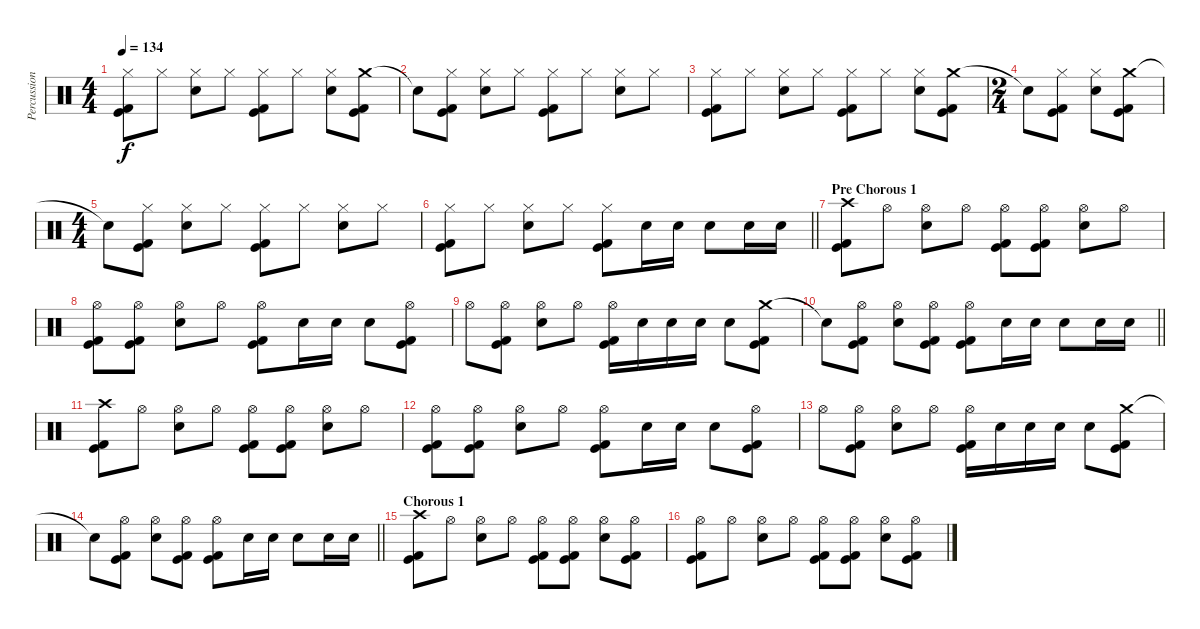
\track ("Percussion" "Percussion") {instrument percussion}
\staff {score}
\articulation defaults
\ts (4 4)
\tempo 134
\clef neutral
\ks c
("Hi-Hat (closed)" "Kick (hit)" "Kick (hit) 2").8{dy f} "Hi-Hat (closed)".8 ("Hi-Hat (closed)" "Electric Snare (hit)").8 "Hi-Hat (closed)".8 ("Hi-Hat (closed)" "Kick (hit)" "Kick (hit) 2").8 "Hi-Hat (closed)".8 ("Hi-Hat (closed)" "Electric Snare (hit)").8 ("Crash medium (hit)" "Kick (hit)" "Kick (hit) 2").8 |
"Snare (hit)"{t}.8 ("Hi-Hat (closed)" "Kick (hit)" "Kick (hit) 2").8 ("Hi-Hat (closed)" "Electric Snare (hit)").8 "Hi-Hat (closed)".8 ("Hi-Hat (closed)" "Kick (hit)" "Kick (hit) 2").8 "Hi-Hat (closed)".8 ("Hi-Hat (closed)" "Electric Snare (hit)").8 "Hi-Hat (closed)".8 |
("Hi-Hat (closed)" "Kick (hit)" "Kick (hit) 2").8 "Hi-Hat (closed)".8 ("Hi-Hat (closed)" "Electric Snare (hit)").8 "Hi-Hat (closed)".8 ("Hi-Hat (closed)" "Kick (hit)" "Kick (hit) 2").8 "Hi-Hat (closed)".8 ("Hi-Hat (closed)" "Electric Snare (hit)").8 ("Crash medium (hit)" "Kick (hit)" "Kick (hit) 2").8 |
\ts (2 4)
"Snare (hit)"{t}.8 ("Hi-Hat (closed)" "Kick (hit)" "Kick (hit) 2").8 ("Hi-Hat (closed)" "Electric Snare (hit)").8 ("Crash medium (hit)" "Kick (hit)" "Kick (hit) 2").8 |
\ts (4 4)
"Snare (hit)"{t}.8 ("Hi-Hat (closed)" "Kick (hit)" "Kick (hit) 2").8 ("Hi-Hat (closed)" "Electric Snare (hit)").8 "Hi-Hat (closed)".8 ("Hi-Hat (closed)" "Kick (hit)" "Kick (hit) 2").8 "Hi-Hat (closed)".8 ("Hi-Hat (closed)" "Electric Snare (hit)").8 "Hi-Hat (closed)".8 |
\barLineRight lightlight
("Hi-Hat (closed)" "Kick (hit)" "Kick (hit) 2").8 "Hi-Hat (closed)".8 ("Hi-Hat (closed)" "Electric Snare (hit)").8 "Hi-Hat (closed)".8 ("Hi-Hat (closed)" "Kick (hit)" "Kick (hit) 2").8 "Electric Snare (hit)".16 "Electric Snare (hit)".16 "Electric Snare (hit)".8 "Electric Snare (hit)".16 "Electric Snare (hit)".16 |
\section ("" "Pre Chorous 1")
("Crash high (hit)" "Kick (hit)" "Kick (hit) 2").8 "Hi-Hat (open)".8 ("Hi-Hat (open)" "Electric Snare (hit)").8 "Hi-Hat (open)".8 ("Hi-Hat (open)" "Kick (hit)" "Kick (hit) 2").8 ("Hi-Hat (open)" "Kick (hit)" "Kick (hit) 2").8 ("Hi-Hat (open)" "Electric Snare (hit)").8 "Hi-Hat (open)".8 |
("Hi-Hat (open)" "Kick (hit)" "Kick (hit) 2").8 ("Hi-Hat (open)" "Kick (hit)" "Kick (hit) 2").8 ("Hi-Hat (open)" "Electric Snare (hit)").8 "Hi-Hat (open)".8 ("Hi-Hat (open)" "Kick (hit)" "Kick (hit) 2").8 "Electric Snare (hit)".16 "Electric Snare (hit)".16 "Electric Snare (hit)".8 ("Hi-Hat (open)" "Kick (hit)" "Kick (hit) 2").8 |
"Hi-Hat (open)".8 ("Hi-Hat (open)" "Kick (hit)" "Kick (hit) 2").8 ("Hi-Hat (open)" "Electric Snare (hit)").8 "Hi-Hat (open)".8 ("Hi-Hat (open)" "Kick (hit)" "Kick (hit) 2").16 "Electric Snare (hit)".16 "Electric Snare (hit)".16 "Electric Snare (hit)".16 "Electric Snare (hit)".8 ("Crash medium (hit)" "Kick (hit)" "Kick (hit) 2").8 |
\barLineRight lightlight "Snare (hit)"{t}.8
("Hi-Hat (open)" "Kick (hit)" "Kick (hit) 2").8 ("Hi-Hat (open)" "Electric Snare (hit)").8 ("Hi-Hat (open)" "Kick (hit)" "Kick (hit) 2").8 ("Hi-Hat (open)" "Kick (hit)" "Kick (hit) 2").8 "Electric Snare (hit)".16 "Electric Snare (hit)".16 "Electric Snare (hit)".8 "Electric Snare (hit)".16 "Electric Snare (hit)".16 |
("Crash high (hit)" "Kick (hit)" "Kick (hit) 2").8 "Hi-Hat (open)".8 ("Hi-Hat (open)" "Electric Snare (hit)").8 "Hi-Hat (open)".8 ("Hi-Hat (open)" "Kick (hit)" "Kick (hit) 2").8 ("Hi-Hat (open)" "Kick (hit)" "Kick (hit) 2").8 ("Hi-Hat (open)" "Electric Snare (hit)").8 "Hi-Hat (open)".8 |
("Hi-Hat (open)" "Kick (hit)" "Kick (hit) 2").8 ("Hi-Hat (open)" "Kick (hit)" "Kick (hit) 2").8 ("Hi-Hat (open)" "Electric Snare (hit)").8 "Hi-Hat (open)".8 ("Hi-Hat (open)" "Kick (hit)" "Kick (hit) 2").8 "Electric Snare (hit)".16 "Electric Snare (hit)".16 "Electric Snare (hit)".8 ("Hi-Hat (open)" "Kick (hit)" "Kick (hit) 2").8 |
"Hi-Hat (open)".8 ("Hi-Hat (open)" "Kick (hit)" "Kick (hit) 2").8 ("Hi-Hat (open)" "Electric Snare (hit)").8 "Hi-Hat (open)".8 ("Hi-Hat (open)" "Kick (hit)" "Kick (hit) 2").16 "Electric Snare (hit)".16 "Electric Snare (hit)".16 "Electric Snare (hit)".16 "Electric Snare (hit)".8 ("Crash medium (hit)" "Kick (hit)" "Kick (hit) 2").8 |
\barLineRight lightlight "Snare (hit)"{t}.8
("Hi-Hat (open)" "Kick (hit)" "Kick (hit) 2").8 ("Hi-Hat (open)" "Electric Snare (hit)").8 ("Hi-Hat (open)" "Kick (hit)" "Kick (hit) 2").8 ("Hi-Hat (open)" "Kick (hit)" "Kick (hit) 2").8 "Electric Snare (hit)".16 "Electric Snare (hit)".16 "Electric Snare (hit)".8 "Electric Snare (hit)".16 "Electric Snare (hit)".16 |
\section ("" "Chorous 1")
("Crash high (hit)" "Kick (hit)" "Kick (hit) 2").8 "Hi-Hat (open)".8 ("Hi-Hat (open)" "Electric Snare (hit)").8 "Hi-Hat (open)".8 ("Hi-Hat (open)" "Kick (hit)" "Kick (hit) 2").8 ("Hi-Hat (open)" "Kick (hit)" "Kick (hit) 2").8 ("Hi-Hat (open)" "Electric Snare (hit)").8 ("Hi-Hat (open)" "Kick (hit)" "Kick (hit) 2").8 |
("Hi-Hat (open)" "Kick (hit)" "Kick (hit) 2").8 "Hi-Hat (open)".8 ("Hi-Hat (open)" "Electric Snare (hit)").8 "Hi-Hat (open)".8 ("Hi-Hat (open)" "Kick (hit)" "Kick (hit) 2").8 ("Hi-Hat (open)" "Kick (hit)" "Kick (hit) 2").8 ("Hi-Hat (open)" "Electric Snare (hit)").8 ("Hi-Hat (open)" "Kick (hit)" "Kick (hit) 2").8
